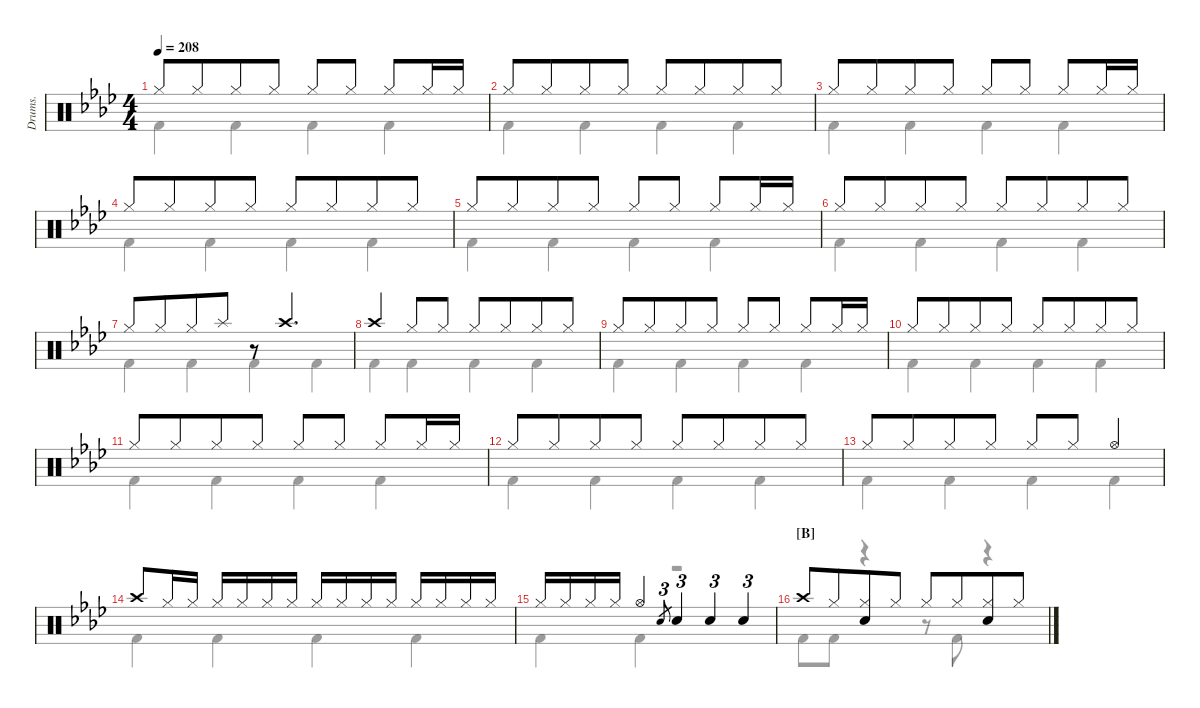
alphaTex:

\defaultSystemsLayout 4
\hideDynamics
\otherSystemsTrackNameOrientation horizontal
\track ("Drumkit" "Drums.") {defaultSystemsLayout 4 instrument percussion}
\staff {score}
\articulation defaults
\voice
\ts (4 4)
\tempo 208
\clef neutral
\ks fminor "Hi-Hat (closed)"{acc forcenatural}.8{dy mf beam merge} "Hi-Hat (closed)"{acc forcenatural}.8{beam merge} "Hi-Hat (closed)"{acc forcenatural}.8{beam merge} "Hi-Hat (closed)"{acc forcenatural}.8 "Hi-Hat (closed)"{acc forcenatural}.8 "Hi-Hat (closed)"{acc forcenatural}.8 "Hi-Hat (closed)"{acc forcenatural}.8 "Hi-Hat (closed)"{acc forcenatural}.16 "Hi-Hat (closed)"{acc forcenatural}.16
|
"Hi-Hat (closed)"{acc forcenatural}.8{beam merge} "Hi-Hat (closed)"{acc forcenatural}.8{beam merge} "Hi-Hat (closed)"{acc forcenatural}.8{beam merge} "Hi-Hat (closed)"{acc forcenatural}.8 "Hi-Hat (closed)"{acc forcenatural}.8{beam merge} "Hi-Hat (closed)"{acc forcenatural}.8{beam merge} "Hi-Hat (closed)"{acc forcenatural}.8{beam merge} "Hi-Hat (closed)"{acc forcenatural}.8 |
"Hi-Hat (closed)"{acc forcenatural}.8{beam merge} "Hi-Hat (closed)"{acc forcenatural}.8{beam merge} "Hi-Hat (closed)"{acc forcenatural}.8{beam merge} "Hi-Hat (closed)"{acc forcenatural}.8 "Hi-Hat (closed)"{acc forcenatural}.8 "Hi-Hat (closed)"{acc forcenatural}.8 "Hi-Hat (closed)"{acc forcenatural}.8 "Hi-Hat (closed)"{acc forcenatural}.16 "Hi-Hat (closed)"{acc forcenatural}.16 |
"Hi-Hat (closed)"{acc forcenatural}.8{beam merge} "Hi-Hat (closed)"{acc forcenatural}.8{beam merge} "Hi-Hat (closed)"{acc forcenatural}.8{beam merge} "Hi-Hat (closed)"{acc forcenatural}.8 "Hi-Hat (closed)"{acc forcenatural}.8{beam merge} "Hi-Hat (closed)"{acc forcenatural}.8{beam merge} "Hi-Hat (closed)"{acc forcenatural}.8{beam merge} "Hi-Hat (closed)"{acc forcenatural}.8 |
"Hi-Hat (closed)"{acc forcenatural}.8{beam merge} "Hi-Hat (closed)"{acc forcenatural}.8{beam merge} "Hi-Hat (closed)"{acc forcenatural}.8{beam merge} "Hi-Hat (closed)"{acc forcenatural}.8 "Hi-Hat (closed)"{acc forcenatural}.8 "Hi-Hat (closed)"{acc forcenatural}.8 "Hi-Hat (closed)"{acc forcenatural}.8 "Hi-Hat (closed)"{acc forcenatural}.16 "Hi-Hat (closed)"{acc forcenatural}.16 |
"Hi-Hat (closed)"{acc forcenatural}.8{beam merge} "Hi-Hat (closed)"{acc forcenatural}.8{beam merge} "Hi-Hat (closed)"{acc forcenatural}.8{beam merge} "Hi-Hat (closed)"{acc forcenatural}.8 "Hi-Hat (closed)"{acc forcenatural}.8{beam merge} "Hi-Hat (closed)"{acc forcenatural}.8{beam merge} "Hi-Hat (closed)"{acc forcenatural}.8{beam merge} "Hi-Hat (closed)"{acc forcenatural}.8 |
"Hi-Hat (closed)"{acc forcenatural}.8{beam merge} "Hi-Hat (closed)"{acc forcenatural}.8{beam merge} "Hi-Hat (closed)"{acc forcenatural}.8{beam merge} "Splash (hit)"{acc forcenatural}.8 r.8 "Crash high (hit)"{acc forcenatural}.4{d} |
"Crash high (hit)"{acc forcenatural}.4 "Hi-Hat (closed)"{acc forcenatural}.8 "Hi-Hat (closed)"{acc forcenatural}.8 "Hi-Hat (closed)"{acc forcenatural}.8{beam merge} "Hi-Hat (closed)"{acc forcenatural}.8{beam merge} "Hi-Hat (closed)"{acc forcenatural}.8{beam merge} "Hi-Hat (closed)"{acc forcenatural}.8 |
"Hi-Hat (closed)"{acc forcenatural}.8{beam merge} "Hi-Hat (closed)"{acc forcenatural}.8{beam merge} "Hi-Hat (closed)"{acc forcenatural}.8{beam merge} "Hi-Hat (closed)"{acc forcenatural}.8 "Hi-Hat (closed)"{acc forcenatural}.8 "Hi-Hat (closed)"{acc forcenatural}.8 "Hi-Hat (closed)"{acc forcenatural}.8 "Hi-Hat (closed)"{acc forcenatural}.16 "Hi-Hat (closed)"{acc forcenatural}.16 |
"Hi-Hat (closed)"{acc forcenatural}.8{beam merge} "Hi-Hat (closed)"{acc forcenatural}.8{beam merge} "Hi-Hat (closed)"{acc forcenatural}.8{beam merge} "Hi-Hat (closed)"{acc forcenatural}.8 "Hi-Hat (closed)"{acc forcenatural}.8{beam merge} "Hi-Hat (closed)"{acc forcenatural}.8{beam merge} "Hi-Hat (closed)"{acc forcenatural}.8{beam merge} "Hi-Hat (closed)"{acc forcenatural}.8 |
"Hi-Hat (closed)"{acc forcenatural}.8{beam merge} "Hi-Hat (closed)"{acc forcenatural}.8{beam merge} "Hi-Hat (closed)"{acc forcenatural}.8{beam merge} "Hi-Hat (closed)"{acc forcenatural}.8 "Hi-Hat (closed)"{acc forcenatural}.8 "Hi-Hat (closed)"{acc forcenatural}.8 "Hi-Hat (closed)"{acc forcenatural}.8 "Hi-Hat (closed)"{acc forcenatural}.16 "Hi-Hat (closed)"{acc forcenatural}.16 |
"Hi-Hat (closed)"{acc forcenatural}.8{beam merge} "Hi-Hat (closed)"{acc forcenatural}.8{beam merge} "Hi-Hat (closed)"{acc forcenatural}.8{beam merge} "Hi-Hat (closed)"{acc forcenatural}.8 "Hi-Hat (closed)"{acc forcenatural}.8{beam merge} "Hi-Hat (closed)"{acc forcenatural}.8{beam merge} "Hi-Hat (closed)"{acc forcenatural}.8{beam merge} "Hi-Hat (closed)"{acc forcenatural}.8 |
"Hi-Hat (closed)"{acc forcenatural}.8{beam merge} "Hi-Hat (closed)"{acc forcenatural}.8{beam merge} "Hi-Hat (closed)"{acc forcenatural}.8{beam merge} "Hi-Hat (closed)"{acc forcenatural}.8 "Hi-Hat (closed)"{acc forcenatural}.8 "Hi-Hat (closed)"{acc forcenatural}.8 "Hi-Hat (open)"{acc forcenatural}.4 |
"Crash high (hit)"{acc forcenatural}.8 "Hi-Hat (closed)"{acc forcenatural}.16 "Hi-Hat (closed)"{acc forcenatural}.16 "Hi-Hat (closed)"{acc forcenatural}.16 "Hi-Hat (closed)"{acc forcenatural}.16 "Hi-Hat (closed)"{acc forcenatural}.16 "Hi-Hat (closed)"{acc forcenatural}.16 "Hi-Hat (closed)"{acc forcenatural}.16 "Hi-Hat (closed)"{acc forcenatural}.16 "Hi-Hat (closed)"{acc forcenatural}.16 "Hi-Hat (closed)"{acc forcenatural}.16 "Hi-Hat (closed)"{acc forcenatural}.16 "Hi-Hat (closed)"{acc forcenatural}.16 "Hi-Hat (closed)"{acc forcenatural}.16 "Hi-Hat (closed)"{acc forcenatural}.16 |
"Hi-Hat (closed)"{acc forcenatural}.16 "Hi-Hat (closed)"{acc forcenatural}.16 "Hi-Hat (closed)"{acc forcenatural}.16 "Hi-Hat (closed)"{acc forcenatural}.16 "Hi-Hat (open)"{acc forcenatural}.4 "Snare (hit) 2"{acc forcenatural}.8{tu (3 2) gr} "Snare (hit) 2"{acc forcenatural}.4{tu (3 2)} "Snare (hit) 2"{acc forcenatural}.4{tu (3 2)} "Snare (hit) 2"{acc forcenatural}.4{tu (3 2)} |
\section ("B" "")
"Crash high (hit)"{acc forcenatural}.8 "Hi-Hat (closed)"{acc forcenatural}.8{beam merge} ("Hi-Hat (closed)"{acc forcenatural} "Snare (hit) 2"{acc forcenatural}).8 "Hi-Hat (closed)"{acc forcenatural}.8 "Hi-Hat (closed)"{acc forcenatural}.8 "Hi-Hat (closed)"{acc forcenatural}.8{beam merge} ("Hi-Hat (closed)"{acc forcenatural} "Snare (hit) 2"{acc forcenatural}).8 "Hi-Hat (closed)"{acc forcenatural}.8
\voice
\clef neutral
\ottava regular
\simile none
\ks fminor "Kick (hit) 2"{acc forcenatural}.4{dy mf} "Kick (hit) 2"{acc forcenatural}.4 "Kick (hit) 2"{acc forcenatural}.4 "Kick (hit) 2"{acc forcenatural}.4
|
"Kick (hit) 2"{acc forcenatural}.4 "Kick (hit) 2"{acc forcenatural}.4 "Kick (hit) 2"{acc forcenatural}.4 "Kick (hit) 2"{acc forcenatural}.4 |
"Kick (hit) 2"{acc forcenatural}.4 "Kick (hit) 2"{acc forcenatural}.4 "Kick (hit) 2"{acc forcenatural}.4 "Kick (hit) 2"{acc forcenatural}.4 |
"Kick (hit) 2"{acc forcenatural}.4 "Kick (hit) 2"{acc forcenatural}.4 "Kick (hit) 2"{acc forcenatural}.4 "Kick (hit) 2"{acc forcenatural}.4 |
"Kick (hit) 2"{acc forcenatural}.4 "Kick (hit) 2"{acc forcenatural}.4 "Kick (hit) 2"{acc forcenatural}.4 "Kick (hit) 2"{acc forcenatural}.4 |
"Kick (hit) 2"{acc forcenatural}.4 "Kick (hit) 2"{acc forcenatural}.4 "Kick (hit) 2"{acc forcenatural}.4 "Kick (hit) 2"{acc forcenatural}.4 |
"Kick (hit) 2"{acc forcenatural}.4 "Kick (hit) 2"{acc forcenatural}.4 "Kick (hit) 2"{acc forcenatural}.4 "Kick (hit) 2"{acc forcenatural}.4 |
"Kick (hit) 2"{acc forcenatural}.4 "Kick (hit) 2"{acc forcenatural}.4 "Kick (hit) 2"{acc forcenatural}.4 "Kick (hit) 2"{acc forcenatural}.4 |
"Kick (hit) 2"{acc forcenatural}.4 "Kick (hit) 2"{acc forcenatural}.4 "Kick (hit) 2"{acc forcenatural}.4 "Kick (hit) 2"{acc forcenatural}.4 |
"Kick (hit) 2"{acc forcenatural}.4 "Kick (hit) 2"{acc forcenatural}.4 "Kick (hit) 2"{acc forcenatural}.4 "Kick (hit) 2"{acc forcenatural}.4 |
"Kick (hit) 2"{acc forcenatural}.4 "Kick (hit) 2"{acc forcenatural}.4 "Kick (hit) 2"{acc forcenatural}.4 "Kick (hit) 2"{acc forcenatural}.4 |
"Kick (hit) 2"{acc forcenatural}.4 "Kick (hit) 2"{acc forcenatural}.4 "Kick (hit) 2"{acc forcenatural}.4 "Kick (hit) 2"{acc forcenatural}.4 |
"Kick (hit) 2"{acc forcenatural}.4 "Kick (hit) 2"{acc forcenatural}.4 "Kick (hit) 2"{acc forcenatural}.4 "Kick (hit) 2"{acc forcenatural}.4 |
"Kick (hit) 2"{acc forcenatural}.4 "Kick (hit) 2"{acc forcenatural}.4 "Kick (hit) 2"{acc forcenatural}.4 "Kick (hit) 2"{acc forcenatural}.4 |
"Kick (hit) 2"{acc forcenatural}.4 "Kick (hit) 2"{acc forcenatural}.4 r.2 |
"Kick (hit) 2"{acc forcenatural}.8 "Kick (hit) 2"{acc forcenatural}.8 r.4 r.8 "Kick (hit) 2"{acc forcenatural}.8 r.4
